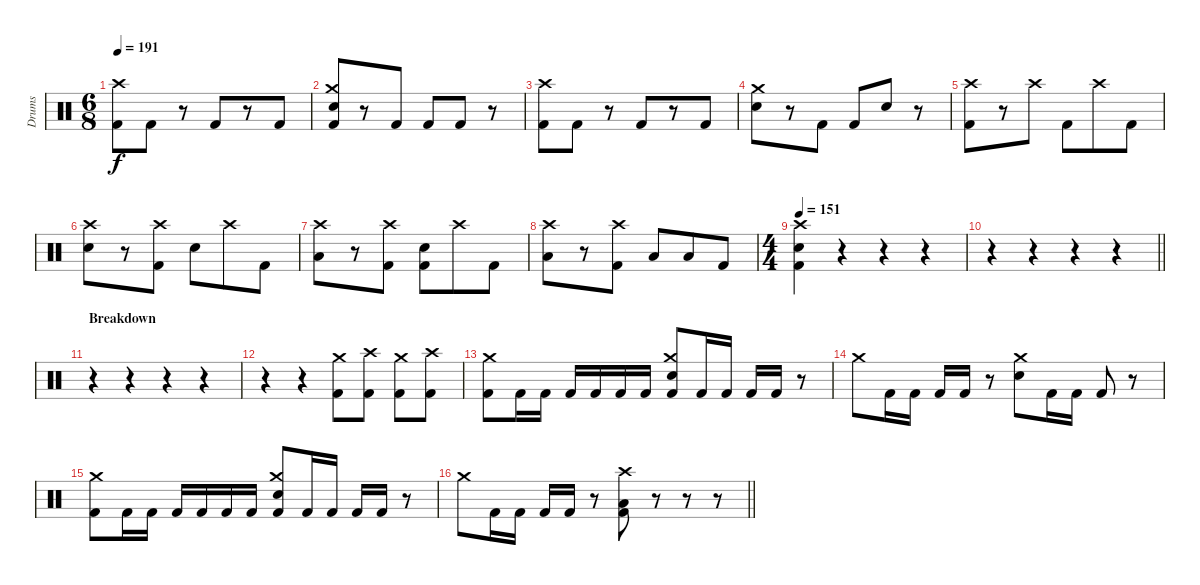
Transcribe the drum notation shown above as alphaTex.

\track ("Drums" "Drums") {instrument percussion}
\staff {score}
\articulation defaults
\ts (6 8)
\tempo 191
\clef neutral
\ks c
("Crash high (hit)" "Kick (hit) 2").8{dy f} "Kick (hit) 2".8 r.8 "Kick (hit) 2".8 r.8 "Kick (hit) 2".8 |
("Crash medium (hit)" "Snare (hit) 2" "Kick (hit) 2").8 r.8 "Kick (hit) 2".8 "Kick (hit) 2".8 "Kick (hit) 2".8 r.8 |
("Crash high (hit)" "Kick (hit) 2").8 "Kick (hit) 2".8 r.8 "Kick (hit) 2".8 r.8 "Kick (hit) 2".8 |
("Crash medium (hit)" "Snare (hit) 2").8 r.8 "Kick (hit) 2".8 "Kick (hit) 2".8 "Snare (hit) 2".8 r.8 |
("Crash high (hit)" "Kick (hit) 2").8 r.8 "Crash high (hit)".8 "Kick (hit) 2".8 "Crash high (hit)".8 "Kick (hit) 2".8 |
("Crash high (hit)" "Snare (hit) 2").8 r.8 ("Crash high (hit)" "Kick (hit) 2").8 "Snare (hit) 2".8 "Crash high (hit)".8 "Kick (hit) 2".8 |
("Crash high (hit)" "Low Tom (hit)").8 r.8 ("Crash high (hit)" "Kick (hit) 2").8 ("Snare (hit) 2" "Kick (hit) 2").8 "Crash high (hit)".8 "Kick (hit) 2".8 |
("Crash high (hit)" "Low Tom (hit)").8 r.8 ("Crash high (hit)" "Kick (hit) 2").8 "Low Tom (hit)".8 "Low Floor Tom (hit)".8 "Kick (hit) 2".8 |
\ts (4 4)
\tempo 151
("Crash high (hit)" "Snare (hit) 2" "Kick (hit) 2").4 r.4 r.4 r.4 |
\barLineRight lightlight
r.4 r.4 r.4 r.4 |
\section ("" "Breakdown")
r.4 r.4 r.4 r.4 |
r.4 r.4 ("Crash medium (hit)" "Kick (hit) 2").8 ("Crash high (hit)" "Kick (hit) 2").8 ("Crash medium (hit)" "Kick (hit) 2").8 ("Crash high (hit)" "Kick (hit) 2").8 |
("Crash medium (hit)" "Kick (hit) 2").8 "Kick (hit) 2".16 "Kick (hit) 2".16 "Kick (hit) 2".16 "Kick (hit) 2".16 "Kick (hit) 2".16 "Kick (hit) 2".16 ("Crash medium (hit)" "Snare (hit) 2" "Kick (hit) 2").8 "Kick (hit) 2".16 "Kick (hit) 2".16 "Kick (hit) 2".16 "Kick (hit) 2".16 r.8 |
"Crash medium (hit)".8 "Kick (hit) 2".16 "Kick (hit) 2".16 "Kick (hit) 2".16 "Kick (hit) 2".16 r.8 ("Crash medium (hit)" "Snare (hit) 2").8 "Kick (hit) 2".16 "Kick (hit) 2".16 "Kick (hit) 2".8 r.8 |
("Crash medium (hit)" "Kick (hit) 2").8 "Kick (hit) 2".16 "Kick (hit) 2".16 "Kick (hit) 2".16 "Kick (hit) 2".16 "Kick (hit) 2".16 "Kick (hit) 2".16 ("Crash medium (hit)" "Snare (hit) 2" "Kick (hit) 2").8 "Kick (hit) 2".16 "Kick (hit) 2".16 "Kick (hit) 2".16 "Kick (hit) 2".16 r.8 |
\barLineRight lightlight "Crash medium (hit)".8 "Kick (hit) 2".16 "Kick (hit) 2".16 "Kick (hit) 2".16 "Kick (hit) 2".16
r.8 ("Crash high (hit)" "Low Floor Tom (hit)" "Kick (hit) 2").8 r.8 r.8 r.8
